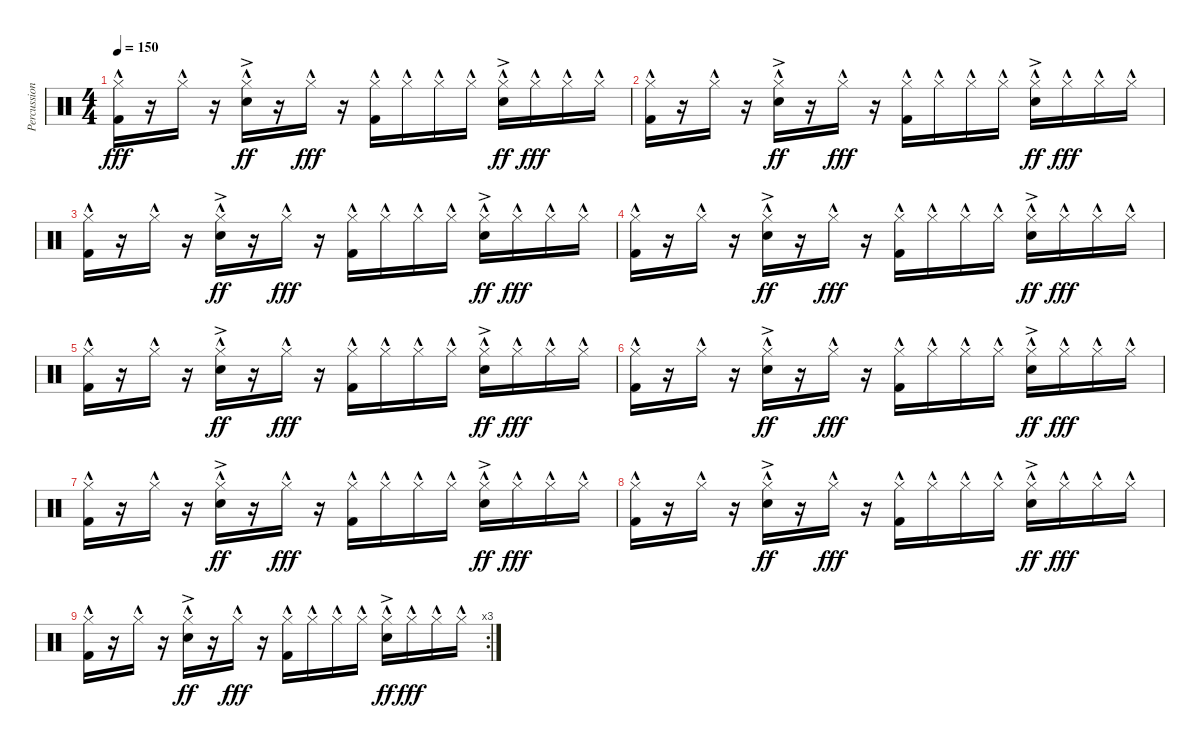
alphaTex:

\track ("Percussion" "Percussion") {instrument percussion}
\staff {score}
\articulation defaults
\ts (4 4)
\tempo 150
\clef neutral
\ks c
("Hi-Hat (closed)"{hac} "Kick (hit) 2"{hac}).16{dy fff} r.16 "Hi-Hat (closed)"{hac}.16 r.16 ("Hi-Hat (closed)"{hac} "Snare (hit) 2"{ac}).16{dy ff} r.16 "Hi-Hat (closed)"{hac}.16{dy fff} r.16 ("Hi-Hat (closed)"{hac} "Kick (hit) 2"{hac}).16 "Hi-Hat (closed)"{hac}.16 "Hi-Hat (closed)"{hac}.16 "Hi-Hat (closed)"{hac}.16 ("Hi-Hat (closed)"{hac} "Snare (hit) 2"{ac}).16{dy ff} "Hi-Hat (closed)"{hac}.16{dy fff} "Hi-Hat (closed)"{hac}.16 "Hi-Hat (closed)"{hac}.16 |
("Hi-Hat (closed)"{hac} "Kick (hit) 2"{hac}).16 r.16 "Hi-Hat (closed)"{hac}.16 r.16 ("Hi-Hat (closed)"{hac} "Snare (hit) 2"{ac}).16{dy ff} r.16 "Hi-Hat (closed)"{hac}.16{dy fff} r.16 ("Hi-Hat (closed)"{hac} "Kick (hit) 2"{hac}).16 "Hi-Hat (closed)"{hac}.16 "Hi-Hat (closed)"{hac}.16 "Hi-Hat (closed)"{hac}.16 ("Hi-Hat (closed)"{hac} "Snare (hit) 2"{ac}).16{dy ff} "Hi-Hat (closed)"{hac}.16{dy fff} "Hi-Hat (closed)"{hac}.16 "Hi-Hat (closed)"{hac}.16 |
("Hi-Hat (closed)"{hac} "Kick (hit) 2"{hac}).16 r.16 "Hi-Hat (closed)"{hac}.16 r.16 ("Hi-Hat (closed)"{hac} "Snare (hit) 2"{ac}).16{dy ff} r.16 "Hi-Hat (closed)"{hac}.16{dy fff} r.16 ("Hi-Hat (closed)"{hac} "Kick (hit) 2"{hac}).16 "Hi-Hat (closed)"{hac}.16 "Hi-Hat (closed)"{hac}.16 "Hi-Hat (closed)"{hac}.16 ("Hi-Hat (closed)"{hac} "Snare (hit) 2"{ac}).16{dy ff} "Hi-Hat (closed)"{hac}.16{dy fff} "Hi-Hat (closed)"{hac}.16 "Hi-Hat (closed)"{hac}.16 |
("Hi-Hat (closed)"{hac} "Kick (hit) 2"{hac}).16 r.16 "Hi-Hat (closed)"{hac}.16 r.16 ("Hi-Hat (closed)"{hac} "Snare (hit) 2"{ac}).16{dy ff} r.16 "Hi-Hat (closed)"{hac}.16{dy fff} r.16 ("Hi-Hat (closed)"{hac} "Kick (hit) 2"{hac}).16 "Hi-Hat (closed)"{hac}.16 "Hi-Hat (closed)"{hac}.16 "Hi-Hat (closed)"{hac}.16 ("Hi-Hat (closed)"{hac} "Snare (hit) 2"{ac}).16{dy ff} "Hi-Hat (closed)"{hac}.16{dy fff} "Hi-Hat (closed)"{hac}.16 "Hi-Hat (closed)"{hac}.16 |
("Hi-Hat (closed)"{hac} "Kick (hit) 2"{hac}).16 r.16 "Hi-Hat (closed)"{hac}.16 r.16 ("Hi-Hat (closed)"{hac} "Snare (hit) 2"{ac}).16{dy ff} r.16 "Hi-Hat (closed)"{hac}.16{dy fff} r.16 ("Hi-Hat (closed)"{hac} "Kick (hit) 2"{hac}).16 "Hi-Hat (closed)"{hac}.16 "Hi-Hat (closed)"{hac}.16 "Hi-Hat (closed)"{hac}.16 ("Hi-Hat (closed)"{hac} "Snare (hit) 2"{ac}).16{dy ff} "Hi-Hat (closed)"{hac}.16{dy fff} "Hi-Hat (closed)"{hac}.16 "Hi-Hat (closed)"{hac}.16 |
("Hi-Hat (closed)"{hac} "Kick (hit) 2"{hac}).16 r.16 "Hi-Hat (closed)"{hac}.16 r.16 ("Hi-Hat (closed)"{hac} "Snare (hit) 2"{ac}).16{dy ff} r.16 "Hi-Hat (closed)"{hac}.16{dy fff} r.16 ("Hi-Hat (closed)"{hac} "Kick (hit) 2"{hac}).16 "Hi-Hat (closed)"{hac}.16 "Hi-Hat (closed)"{hac}.16 "Hi-Hat (closed)"{hac}.16 ("Hi-Hat (closed)"{hac} "Snare (hit) 2"{ac}).16{dy ff} "Hi-Hat (closed)"{hac}.16{dy fff} "Hi-Hat (closed)"{hac}.16 "Hi-Hat (closed)"{hac}.16 |
("Hi-Hat (closed)"{hac} "Kick (hit) 2"{hac}).16 r.16 "Hi-Hat (closed)"{hac}.16 r.16 ("Hi-Hat (closed)"{hac} "Snare (hit) 2"{ac}).16{dy ff} r.16 "Hi-Hat (closed)"{hac}.16{dy fff} r.16 ("Hi-Hat (closed)"{hac} "Kick (hit) 2"{hac}).16 "Hi-Hat (closed)"{hac}.16 "Hi-Hat (closed)"{hac}.16 "Hi-Hat (closed)"{hac}.16 ("Hi-Hat (closed)"{hac} "Snare (hit) 2"{ac}).16{dy ff} "Hi-Hat (closed)"{hac}.16{dy fff} "Hi-Hat (closed)"{hac}.16 "Hi-Hat (closed)"{hac}.16 |
("Hi-Hat (closed)"{hac} "Kick (hit) 2"{hac}).16 r.16 "Hi-Hat (closed)"{hac}.16 r.16 ("Hi-Hat (closed)"{hac} "Snare (hit) 2"{ac}).16{dy ff} r.16 "Hi-Hat (closed)"{hac}.16{dy fff} r.16 ("Hi-Hat (closed)"{hac} "Kick (hit) 2"{hac}).16 "Hi-Hat (closed)"{hac}.16 "Hi-Hat (closed)"{hac}.16 "Hi-Hat (closed)"{hac}.16 ("Hi-Hat (closed)"{hac} "Snare (hit) 2"{ac}).16{dy ff} "Hi-Hat (closed)"{hac}.16{dy fff} "Hi-Hat (closed)"{hac}.16 "Hi-Hat (closed)"{hac}.16 |
\rc 3
("Hi-Hat (closed)"{hac} "Kick (hit) 2"{hac}).16 r.16 "Hi-Hat (closed)"{hac}.16 r.16 ("Hi-Hat (closed)"{hac} "Snare (hit) 2"{ac}).16{dy ff} r.16 "Hi-Hat (closed)"{hac}.16{dy fff} r.16 ("Hi-Hat (closed)"{hac} "Kick (hit) 2"{hac}).16 "Hi-Hat (closed)"{hac}.16 "Hi-Hat (closed)"{hac}.16 "Hi-Hat (closed)"{hac}.16 ("Hi-Hat (closed)"{hac} "Snare (hit) 2"{ac}).16{dy ff} "Hi-Hat (closed)"{hac}.16{dy fff} "Hi-Hat (closed)"{hac}.16 "Hi-Hat (closed)"{hac}.16
